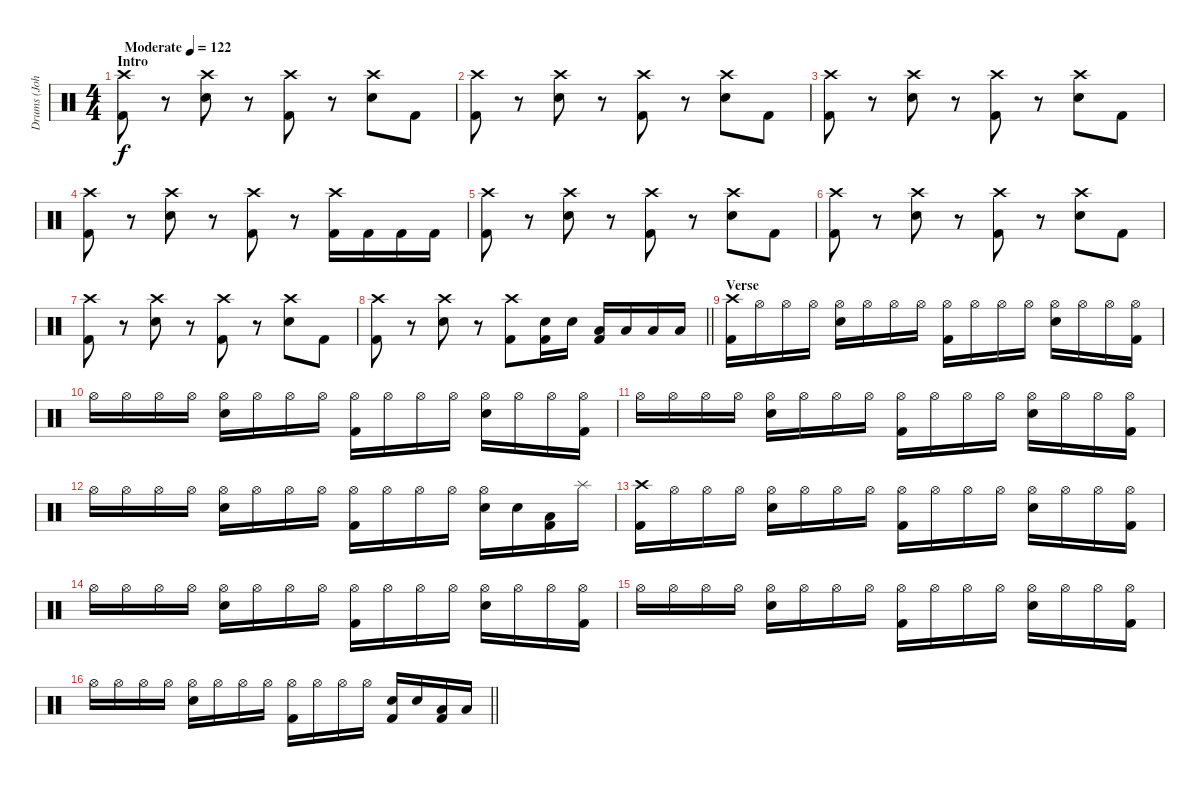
\track ("Drums (John)" "Drums (Joh") {instrument percussion}
\staff {score}
\articulation defaults
\ts (4 4)
\section ("" "Intro")
\tempo (122 "Moderate")
\clef neutral
\ks c
("Crash high (hit)" "Kick (hit) 2").8{dy f} r.8 ("Crash high (hit)" "Electric Snare (hit)").8 r.8 ("Crash high (hit)" "Kick (hit) 2").8 r.8 ("Crash high (hit)" "Electric Snare (hit)").8 "Kick (hit) 2".8 |
("Crash high (hit)" "Kick (hit) 2").8 r.8 ("Crash high (hit)" "Electric Snare (hit)").8 r.8 ("Crash high (hit)" "Kick (hit) 2").8 r.8 ("Crash high (hit)" "Electric Snare (hit)").8 "Kick (hit) 2".8 |
("Crash high (hit)" "Kick (hit) 2").8 r.8 ("Crash high (hit)" "Electric Snare (hit)").8 r.8 ("Crash high (hit)" "Kick (hit) 2").8 r.8 ("Crash high (hit)" "Electric Snare (hit)").8 "Kick (hit) 2".8 |
("Crash high (hit)" "Kick (hit) 2").8 r.8 ("Crash high (hit)" "Electric Snare (hit)").8 r.8 ("Crash high (hit)" "Kick (hit) 2").8 r.8 ("Crash high (hit)" "Kick (hit) 2").16 "Kick (hit) 2".16 "Kick (hit) 2".16 "Kick (hit) 2".16 |
("Crash high (hit)" "Kick (hit) 2").8 r.8 ("Crash high (hit)" "Electric Snare (hit)").8 r.8 ("Crash high (hit)" "Kick (hit) 2").8 r.8 ("Crash high (hit)" "Electric Snare (hit)").8 "Kick (hit) 2".8 |
("Crash high (hit)" "Kick (hit) 2").8 r.8 ("Crash high (hit)" "Electric Snare (hit)").8 r.8 ("Crash high (hit)" "Kick (hit) 2").8 r.8 ("Crash high (hit)" "Electric Snare (hit)").8 "Kick (hit) 2".8 |
("Crash high (hit)" "Kick (hit) 2").8 r.8 ("Crash high (hit)" "Electric Snare (hit)").8 r.8 ("Crash high (hit)" "Kick (hit) 2").8 r.8 ("Crash high (hit)" "Electric Snare (hit)").8 "Kick (hit) 2".8 |
\barLineRight lightlight
("Crash high (hit)" "Kick (hit) 2").8 r.8 ("Crash high (hit)" "Electric Snare (hit)").8 r.8 ("Crash high (hit)" "Kick (hit) 2").8 ("Electric Snare (hit)" "Kick (hit) 2").16 "Electric Snare (hit)".16 ("Low Tom (hit)" "Kick (hit) 2").16 "Low Tom (hit)".16 "Low Tom (hit)".16 "Low Tom (hit)".16 |
\section ("" "Verse")
("Crash high (hit)" "Kick (hit) 2").16 "Hi-Hat (open)".16 "Hi-Hat (open)".16 "Hi-Hat (open)".16 ("Hi-Hat (open)" "Electric Snare (hit)").16 "Hi-Hat (open)".16 "Hi-Hat (open)".16 "Hi-Hat (open)".16 ("Hi-Hat (open)" "Kick (hit) 2").16 "Hi-Hat (open)".16 "Hi-Hat (open)".16 "Hi-Hat (open)".16 ("Hi-Hat (open)" "Electric Snare (hit)").16 "Hi-Hat (open)".16 "Hi-Hat (open)".16 ("Hi-Hat (open)" "Kick (hit) 2").16 |
"Hi-Hat (open)".16 "Hi-Hat (open)".16 "Hi-Hat (open)".16 "Hi-Hat (open)".16 ("Hi-Hat (open)" "Electric Snare (hit)").16 "Hi-Hat (open)".16 "Hi-Hat (open)".16 "Hi-Hat (open)".16 ("Hi-Hat (open)" "Kick (hit) 2").16 "Hi-Hat (open)".16 "Hi-Hat (open)".16 "Hi-Hat (open)".16 ("Hi-Hat (open)" "Electric Snare (hit)").16 "Hi-Hat (open)".16 "Hi-Hat (open)".16 ("Hi-Hat (open)" "Kick (hit) 2").16 |
"Hi-Hat (open)".16 "Hi-Hat (open)".16 "Hi-Hat (open)".16 "Hi-Hat (open)".16 ("Hi-Hat (open)" "Electric Snare (hit)").16 "Hi-Hat (open)".16 "Hi-Hat (open)".16 "Hi-Hat (open)".16 ("Hi-Hat (open)" "Kick (hit) 2").16 "Hi-Hat (open)".16 "Hi-Hat (open)".16 "Hi-Hat (open)".16 ("Hi-Hat (open)" "Electric Snare (hit)").16 "Hi-Hat (open)".16 "Hi-Hat (open)".16 ("Hi-Hat (open)" "Kick (hit) 2").16 |
"Hi-Hat (open)".16 "Hi-Hat (open)".16 "Hi-Hat (open)".16 "Hi-Hat (open)".16 ("Hi-Hat (open)" "Electric Snare (hit)").16 "Hi-Hat (open)".16 "Hi-Hat (open)".16 "Hi-Hat (open)".16 ("Hi-Hat (open)" "Kick (hit) 2").16 "Hi-Hat (open)".16 "Hi-Hat (open)".16 "Hi-Hat (open)".16 ("Hi-Hat (open)" "Electric Snare (hit)").16 "Electric Snare (hit)".16 ("Low Tom (hit)" "Kick (hit) 2").16 "Splash (hit)".16 |
("Crash high (hit)" "Kick (hit) 2").16 "Hi-Hat (open)".16 "Hi-Hat (open)".16 "Hi-Hat (open)".16 ("Hi-Hat (open)" "Electric Snare (hit)").16 "Hi-Hat (open)".16 "Hi-Hat (open)".16 "Hi-Hat (open)".16 ("Hi-Hat (open)" "Kick (hit) 2").16 "Hi-Hat (open)".16 "Hi-Hat (open)".16 "Hi-Hat (open)".16 ("Hi-Hat (open)" "Electric Snare (hit)").16 "Hi-Hat (open)".16 "Hi-Hat (open)".16 ("Hi-Hat (open)" "Kick (hit) 2").16 |
"Hi-Hat (open)".16 "Hi-Hat (open)".16 "Hi-Hat (open)".16 "Hi-Hat (open)".16 ("Hi-Hat (open)" "Electric Snare (hit)").16 "Hi-Hat (open)".16 "Hi-Hat (open)".16 "Hi-Hat (open)".16 ("Hi-Hat (open)" "Kick (hit) 2").16 "Hi-Hat (open)".16 "Hi-Hat (open)".16 "Hi-Hat (open)".16 ("Hi-Hat (open)" "Electric Snare (hit)").16 "Hi-Hat (open)".16 "Hi-Hat (open)".16 ("Hi-Hat (open)" "Kick (hit) 2").16 |
"Hi-Hat (open)".16 "Hi-Hat (open)".16 "Hi-Hat (open)".16 "Hi-Hat (open)".16 ("Hi-Hat (open)" "Electric Snare (hit)").16 "Hi-Hat (open)".16 "Hi-Hat (open)".16 "Hi-Hat (open)".16 ("Hi-Hat (open)" "Kick (hit) 2").16 "Hi-Hat (open)".16 "Hi-Hat (open)".16 "Hi-Hat (open)".16 ("Hi-Hat (open)" "Electric Snare (hit)").16 "Hi-Hat (open)".16 "Hi-Hat (open)".16 ("Hi-Hat (open)" "Kick (hit) 2").16 |
\barLineRight lightlight "Hi-Hat (open)".16 "Hi-Hat (open)".16 "Hi-Hat (open)".16 "Hi-Hat (open)".16
("Hi-Hat (open)" "Electric Snare (hit)").16 "Hi-Hat (open)".16 "Hi-Hat (open)".16 "Hi-Hat (open)".16 ("Hi-Hat (open)" "Kick (hit) 2").16 "Hi-Hat (open)".16 "Hi-Hat (open)".16 "Hi-Hat (open)".16 ("Electric Snare (hit)" "Kick (hit) 2").16 "Electric Snare (hit)".16 ("Low Tom (hit)" "Kick (hit) 2").16 "Low Tom (hit)".16
